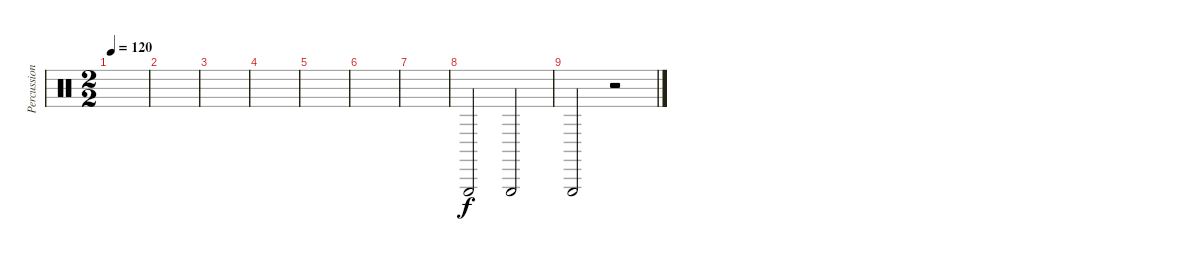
\track ("Percussions" "Percussion") {instrument percussion}
\staff {score}
\articulation defaults
\ts (2 2)
\tempo 120
\clef neutral
\ks c
|
|
|
|
|
|
|
"Triangle (hit)".2 "Triangle (hit)".2 |
"Triangle (hit)".2 r.2
